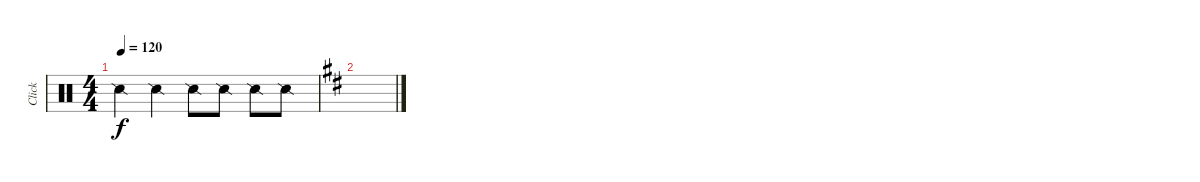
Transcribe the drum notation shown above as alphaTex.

\track ("Click" "Click") {instrument percussion}
\staff {score}
\articulation defaults
\ts (4 4)
\tempo 120
\clef neutral
\ks c "Snare (side stick) 2".4{dy f} "Snare (side stick) 2".4 "Snare (side stick) 2".8 "Snare (side stick) 2".8 "Snare (side stick) 2".8 "Snare (side stick) 2".8
|
\ks bminor
